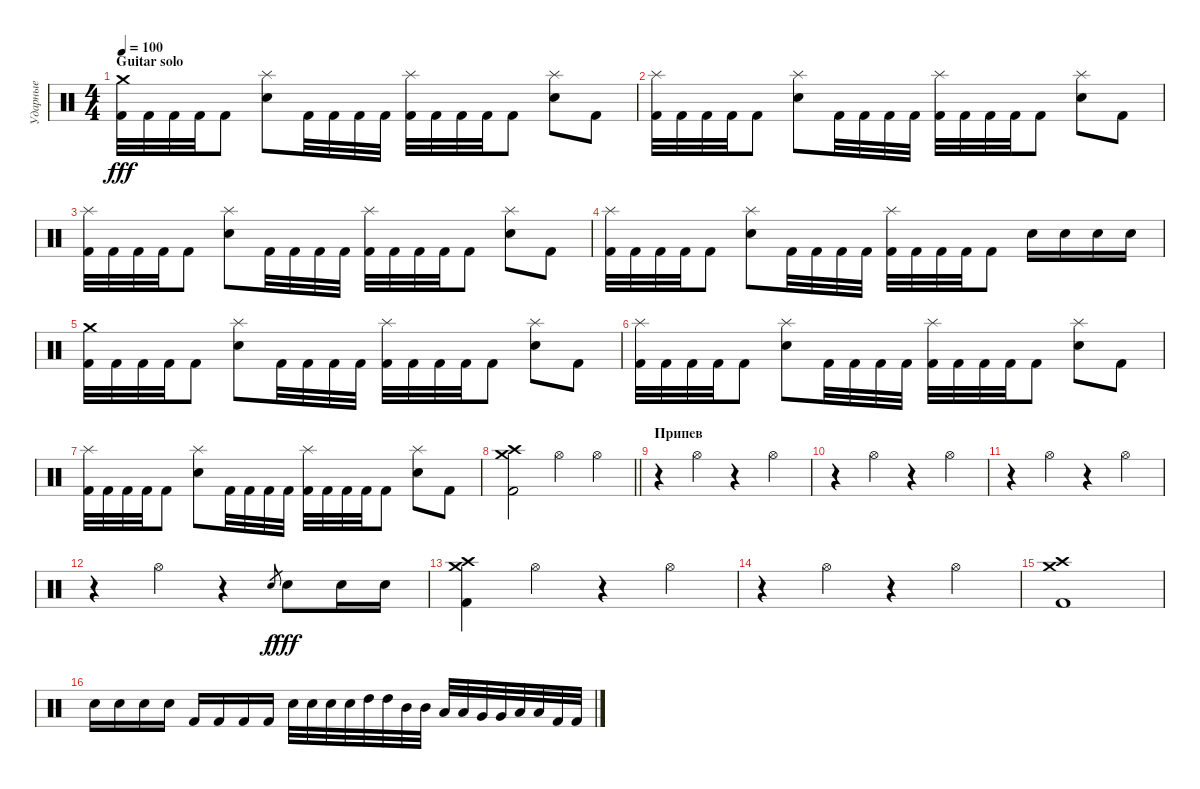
\track ("Ударные" "Ударные") {instrument percussion}
\staff {score}
\articulation defaults
\ts (4 4)
\section ("" "Guitar solo")
\tempo 100
\clef neutral
\ks c
("Crash medium (hit)" "Kick (hit) 2").32{dy fff} "Kick (hit) 2".32 "Kick (hit) 2".32 "Kick (hit) 2".32 "Kick (hit) 2".8 ("Splash (hit)" "Electric Snare (hit)").8 "Kick (hit) 2".32 "Kick (hit) 2".32 "Kick (hit) 2".32 "Kick (hit) 2".32 ("Splash (hit)" "Kick (hit) 2").32 "Kick (hit) 2".32 "Kick (hit) 2".32 "Kick (hit) 2".32 "Kick (hit) 2".8 ("Splash (hit)" "Electric Snare (hit)").8 "Kick (hit) 2".8 |
("Splash (hit)" "Kick (hit) 2").32 "Kick (hit) 2".32 "Kick (hit) 2".32 "Kick (hit) 2".32 "Kick (hit) 2".8 ("Splash (hit)" "Electric Snare (hit)").8 "Kick (hit) 2".32 "Kick (hit) 2".32 "Kick (hit) 2".32 "Kick (hit) 2".32 ("Splash (hit)" "Kick (hit) 2").32 "Kick (hit) 2".32 "Kick (hit) 2".32 "Kick (hit) 2".32 "Kick (hit) 2".8 ("Splash (hit)" "Electric Snare (hit)").8 "Kick (hit) 2".8 |
("Splash (hit)" "Kick (hit) 2").32 "Kick (hit) 2".32 "Kick (hit) 2".32 "Kick (hit) 2".32 "Kick (hit) 2".8 ("Splash (hit)" "Electric Snare (hit)").8 "Kick (hit) 2".32 "Kick (hit) 2".32 "Kick (hit) 2".32 "Kick (hit) 2".32 ("Splash (hit)" "Kick (hit) 2").32 "Kick (hit) 2".32 "Kick (hit) 2".32 "Kick (hit) 2".32 "Kick (hit) 2".8 ("Splash (hit)" "Electric Snare (hit)").8 "Kick (hit) 2".8 |
("Splash (hit)" "Kick (hit) 2").32 "Kick (hit) 2".32 "Kick (hit) 2".32 "Kick (hit) 2".32 "Kick (hit) 2".8 ("Splash (hit)" "Electric Snare (hit)").8 "Kick (hit) 2".32 "Kick (hit) 2".32 "Kick (hit) 2".32 "Kick (hit) 2".32 ("Splash (hit)" "Kick (hit) 2").32 "Kick (hit) 2".32 "Kick (hit) 2".32 "Kick (hit) 2".32 "Kick (hit) 2".8 "Electric Snare (hit)".16 "Electric Snare (hit)".16 "Electric Snare (hit)".16 "Electric Snare (hit)".16 |
("Crash medium (hit)" "Kick (hit) 2").32 "Kick (hit) 2".32 "Kick (hit) 2".32 "Kick (hit) 2".32 "Kick (hit) 2".8 ("Splash (hit)" "Electric Snare (hit)").8 "Kick (hit) 2".32 "Kick (hit) 2".32 "Kick (hit) 2".32 "Kick (hit) 2".32 ("Splash (hit)" "Kick (hit) 2").32 "Kick (hit) 2".32 "Kick (hit) 2".32 "Kick (hit) 2".32 "Kick (hit) 2".8 ("Splash (hit)" "Electric Snare (hit)").8 "Kick (hit) 2".8 |
("Splash (hit)" "Kick (hit) 2").32 "Kick (hit) 2".32 "Kick (hit) 2".32 "Kick (hit) 2".32 "Kick (hit) 2".8 ("Splash (hit)" "Electric Snare (hit)").8 "Kick (hit) 2".32 "Kick (hit) 2".32 "Kick (hit) 2".32 "Kick (hit) 2".32 ("Splash (hit)" "Kick (hit) 2").32 "Kick (hit) 2".32 "Kick (hit) 2".32 "Kick (hit) 2".32 "Kick (hit) 2".8 ("Splash (hit)" "Electric Snare (hit)").8 "Kick (hit) 2".8 |
("Splash (hit)" "Kick (hit) 2").32 "Kick (hit) 2".32 "Kick (hit) 2".32 "Kick (hit) 2".32 "Kick (hit) 2".8 ("Splash (hit)" "Electric Snare (hit)").8 "Kick (hit) 2".32 "Kick (hit) 2".32 "Kick (hit) 2".32 "Kick (hit) 2".32 ("Splash (hit)" "Kick (hit) 2").32 "Kick (hit) 2".32 "Kick (hit) 2".32 "Kick (hit) 2".32 "Kick (hit) 2".8 ("Splash (hit)" "Electric Snare (hit)").8 "Kick (hit) 2".8 |
\barLineRight lightlight
("Crash high (hit)" "Crash medium (hit)" "Kick (hit) 2").2 "Hi-Hat (open)".4 "Hi-Hat (open)".4 |
\section ("" "Припев")
r.4 "Hi-Hat (open)".4 r.4 "Hi-Hat (open)".4 |
r.4 "Hi-Hat (open)".4 r.4 "Hi-Hat (open)".4 |
r.4 "Hi-Hat (open)".4 r.4 "Hi-Hat (open)".4 |
r.4 "Hi-Hat (open)".4 r.4 "Electric Snare (hit)".8{gr dy f} "Electric Snare (hit)".8{dy fff} "Electric Snare (hit)".16 "Electric Snare (hit)".16 |
("Crash medium (hit)" "Crash high (hit)" "Kick (hit) 2").4 "Hi-Hat (open)".4 r.4 "Hi-Hat (open)".4 |
r.4 "Hi-Hat (open)".4 r.4 "Hi-Hat (open)".4 |
("Crash medium (hit)" "Crash high (hit)" "Kick (hit) 2").1 |
"Electric Snare (hit)".16 "Electric Snare (hit)".16 "Electric Snare (hit)".16 "Electric Snare (hit)".16 "Kick (hit) 2".16 "Kick (hit) 2".16 "Kick (hit) 2".16 "Kick (hit) 2".16 "Electric Snare (hit)".32 "Electric Snare (hit)".32 "Electric Snare (hit)".32 "Electric Snare (hit)".32 "High Tom (hit)".32 "High Tom (hit)".32 "Mid Tom (hit)".32 "Mid Tom (hit)".32 "Low Tom (hit)".32 "Low Tom (hit)".32 "Very Low Tom (hit)".32 "Very Low Tom (hit)".32 "Low Floor Tom (hit)".32 "Low Floor Tom (hit)".32 "Kick (hit) 2".32 "Kick (hit) 2".32
